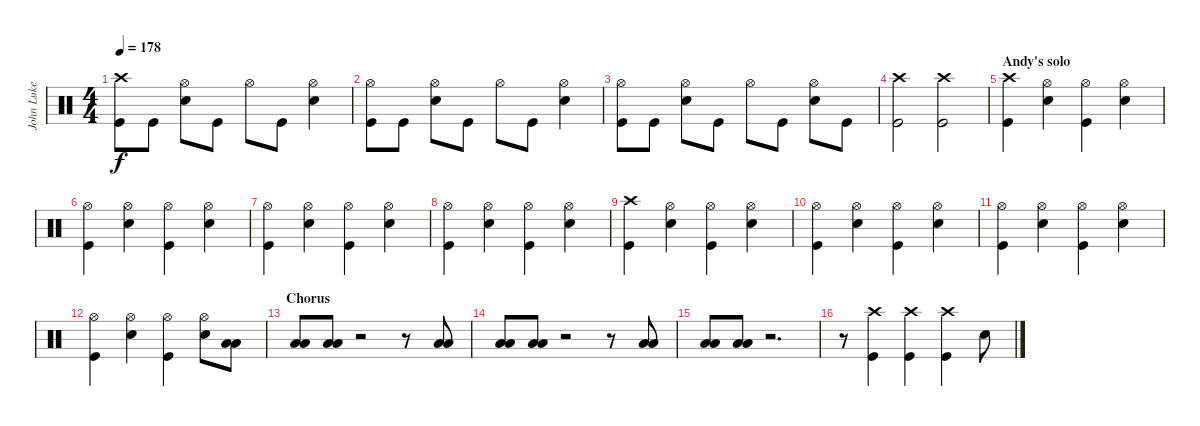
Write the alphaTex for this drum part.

\track ("John Luke (Drums)" "John Luke ") {instrument percussion}
\staff {score}
\articulation defaults
\ts (4 4)
\tempo 178
\clef neutral
\ks c
("Crash high (hit)" "Kick (hit)").8{dy f} "Kick (hit)".8 ("Hi-Hat (open)" "Electric Snare (hit)").8 "Kick (hit)".8 "Hi-Hat (open)".8 "Kick (hit)".8 ("Hi-Hat (open)" "Electric Snare (hit)").4 |
("Hi-Hat (open)" "Kick (hit)").8 "Kick (hit)".8 ("Hi-Hat (open)" "Electric Snare (hit)").8 "Kick (hit)".8 "Hi-Hat (open)".8 "Kick (hit)".8 ("Hi-Hat (open)" "Electric Snare (hit)").4 |
("Hi-Hat (open)" "Kick (hit)").8 "Kick (hit)".8 ("Hi-Hat (open)" "Electric Snare (hit)").8 "Kick (hit)".8 "Hi-Hat (open)".8 "Kick (hit)".8 ("Hi-Hat (open)" "Electric Snare (hit)").8 "Kick (hit)".8 |
("Crash high (hit)" "Kick (hit)").2 ("Crash high (hit)" "Kick (hit)").2 |
\section ("" "Andy's solo")
("Crash high (hit)" "Kick (hit)").4 ("Hi-Hat (open)" "Electric Snare (hit)").4 ("Hi-Hat (open)" "Kick (hit)").4 ("Hi-Hat (open)" "Electric Snare (hit)").4 |
("Hi-Hat (open)" "Kick (hit)").4 ("Hi-Hat (open)" "Electric Snare (hit)").4 ("Hi-Hat (open)" "Kick (hit)").4 ("Hi-Hat (open)" "Electric Snare (hit)").4 |
("Hi-Hat (open)" "Kick (hit)").4 ("Hi-Hat (open)" "Electric Snare (hit)").4 ("Hi-Hat (open)" "Kick (hit)").4 ("Hi-Hat (open)" "Electric Snare (hit)").4 |
("Hi-Hat (open)" "Kick (hit)").4 ("Hi-Hat (open)" "Electric Snare (hit)").4 ("Hi-Hat (open)" "Kick (hit)").4 ("Hi-Hat (open)" "Electric Snare (hit)").4 |
("Crash high (hit)" "Kick (hit)").4 ("Hi-Hat (open)" "Electric Snare (hit)").4 ("Hi-Hat (open)" "Kick (hit)").4 ("Hi-Hat (open)" "Electric Snare (hit)").4 |
("Hi-Hat (open)" "Kick (hit)").4 ("Hi-Hat (open)" "Electric Snare (hit)").4 ("Hi-Hat (open)" "Kick (hit)").4 ("Hi-Hat (open)" "Electric Snare (hit)").4 |
("Hi-Hat (open)" "Kick (hit)").4 ("Hi-Hat (open)" "Electric Snare (hit)").4 ("Hi-Hat (open)" "Kick (hit)").4 ("Hi-Hat (open)" "Electric Snare (hit)").4 |
("Hi-Hat (open)" "Kick (hit)").4 ("Hi-Hat (open)" "Electric Snare (hit)").4 ("Hi-Hat (open)" "Kick (hit)").4 ("Hi-Hat (open)" "Electric Snare (hit)").8 ("Low Floor Tom (hit)" "Low Floor Tom (hit)").8{bu 120} |
\section ("" "Chorus")
("Low Floor Tom (hit)" "Low Floor Tom (hit)").8{bu 120} ("Low Floor Tom (hit)" "Low Floor Tom (hit)").8{bu 120} r.2 r.8 ("Low Floor Tom (hit)" "Low Floor Tom (hit)").8{bu 120} |
("Low Floor Tom (hit)" "Low Floor Tom (hit)").8{bu 120} ("Low Floor Tom (hit)" "Low Floor Tom (hit)").8{bu 120} r.2 r.8 ("Low Floor Tom (hit)" "Low Floor Tom (hit)").8{bu 120} |
("Low Floor Tom (hit)" "Low Floor Tom (hit)").8{bu 120} ("Low Floor Tom (hit)" "Low Floor Tom (hit)").8{bu 120} r.2{d} |
r.8 ("Crash high (hit)" "Kick (hit)").4 ("Crash high (hit)" "Kick (hit)").4 ("Crash high (hit)" "Kick (hit)").4 "Electric Snare (hit)".8
